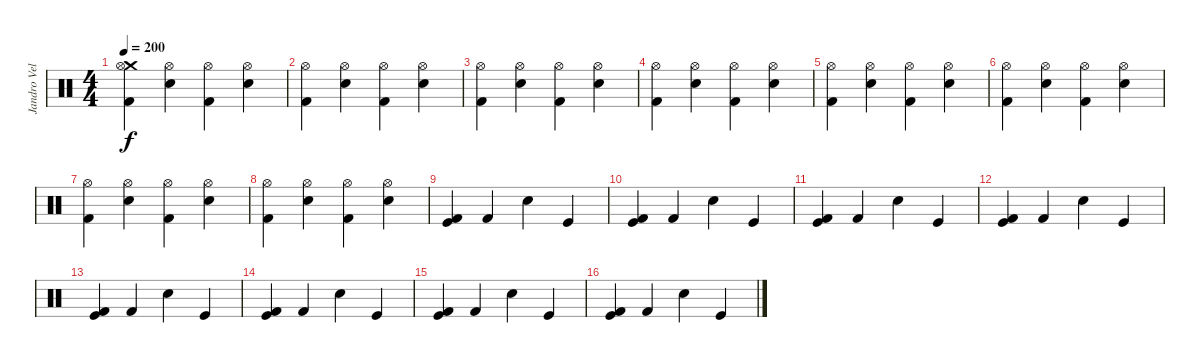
\track ("Jandro Velázquez" "Jandro Vel") {instrument percussion}
\staff {score}
\articulation defaults
\ts (4 4)
\tempo 200
\clef neutral
\ks c
("Crash medium (hit)" "Hi-Hat (open)" "Kick (hit) 2").4{dy f} ("Hi-Hat (open)" "Snare (hit) 2").4 ("Hi-Hat (open)" "Kick (hit) 2").4 ("Hi-Hat (open)" "Snare (hit) 2").4 |
("Hi-Hat (open)" "Kick (hit) 2").4 ("Hi-Hat (open)" "Snare (hit) 2").4 ("Hi-Hat (open)" "Kick (hit) 2").4 ("Hi-Hat (open)" "Snare (hit) 2").4 |
("Hi-Hat (open)" "Kick (hit) 2").4 ("Hi-Hat (open)" "Snare (hit) 2").4 ("Hi-Hat (open)" "Kick (hit) 2").4 ("Hi-Hat (open)" "Snare (hit) 2").4 |
("Hi-Hat (open)" "Kick (hit) 2").4 ("Hi-Hat (open)" "Snare (hit) 2").4 ("Hi-Hat (open)" "Kick (hit) 2").4 ("Hi-Hat (open)" "Snare (hit) 2").4 |
("Hi-Hat (open)" "Kick (hit) 2").4 ("Hi-Hat (open)" "Snare (hit) 2").4 ("Hi-Hat (open)" "Kick (hit) 2").4 ("Hi-Hat (open)" "Snare (hit) 2").4 |
("Hi-Hat (open)" "Kick (hit) 2").4 ("Hi-Hat (open)" "Snare (hit) 2").4 ("Hi-Hat (open)" "Kick (hit) 2").4 ("Hi-Hat (open)" "Snare (hit) 2").4 |
("Hi-Hat (open)" "Kick (hit) 2").4 ("Hi-Hat (open)" "Snare (hit) 2").4 ("Hi-Hat (open)" "Kick (hit) 2").4 ("Hi-Hat (open)" "Snare (hit) 2").4 |
("Hi-Hat (open)" "Kick (hit) 2").4 ("Hi-Hat (open)" "Snare (hit) 2").4 ("Hi-Hat (open)" "Kick (hit) 2").4 ("Hi-Hat (open)" "Snare (hit) 2").4 |
("Kick (hit)" "Kick (hit) 2").4{volume 10} "Kick (hit) 2".4 "Snare (hit) 2".4 "Kick (hit)".4 |
("Kick (hit)" "Kick (hit) 2").4{volume 10} "Kick (hit) 2".4 "Snare (hit) 2".4 "Kick (hit)".4 |
("Kick (hit)" "Kick (hit) 2").4{volume 10} "Kick (hit) 2".4 "Snare (hit) 2".4 "Kick (hit)".4 |
("Kick (hit)" "Kick (hit) 2").4{volume 10} "Kick (hit) 2".4 "Snare (hit) 2".4 "Kick (hit)".4 |
("Kick (hit)" "Kick (hit) 2").4{volume 10} "Kick (hit) 2".4 "Snare (hit) 2".4 "Kick (hit)".4 |
("Kick (hit) 2" "Kick (hit)").4{volume 10} "Kick (hit) 2".4 "Snare (hit) 2".4 "Kick (hit)".4 |
("Kick (hit) 2" "Kick (hit)").4{volume 10} "Kick (hit) 2".4 "Snare (hit) 2".4 "Kick (hit)".4 |
("Kick (hit) 2" "Kick (hit)").4{volume 10} "Kick (hit) 2".4 "Snare (hit) 2".4 "Kick (hit)".4
